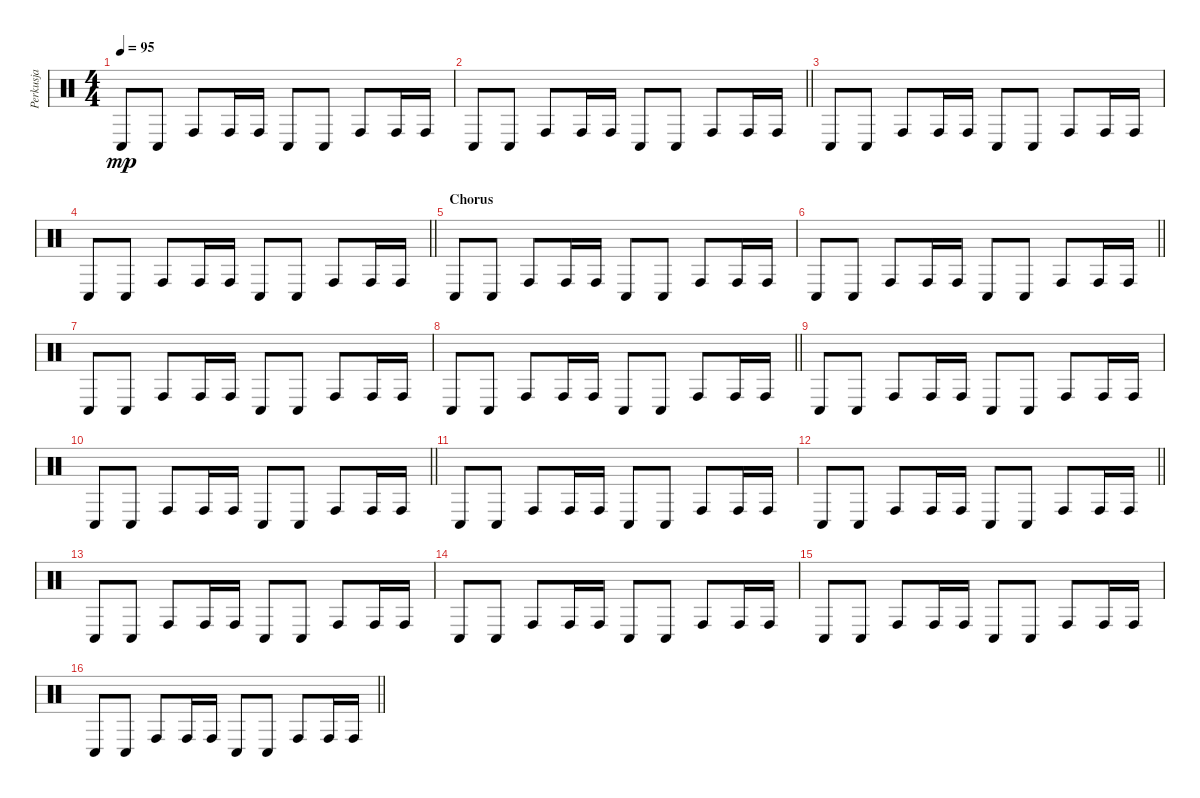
\track ("Perkusja" "Perkusja") {instrument percussion}
\staff {score}
\articulation defaults
\ts (4 4)
\tempo 95
\clef neutral
\ks c "Conga low (hit)".8{dy mp} "Conga low (hit)".8 "Conga high (hit)".8 "Conga high (hit)".16 "Conga high (hit)".16 "Conga low (hit)".8 "Conga low (hit)".8 "Conga high (hit)".8 "Conga high (hit)".16 "Conga high (hit)".16
|
\barLineRight lightlight "Conga low (hit)".8 "Conga low (hit)".8 "Conga high (hit)".8 "Conga high (hit)".16 "Conga high (hit)".16 "Conga low (hit)".8 "Conga low (hit)".8 "Conga high (hit)".8 "Conga high (hit)".16 "Conga high (hit)".16
|
"Conga low (hit)".8 "Conga low (hit)".8 "Conga high (hit)".8 "Conga high (hit)".16 "Conga high (hit)".16 "Conga low (hit)".8 "Conga low (hit)".8 "Conga high (hit)".8 "Conga high (hit)".16 "Conga high (hit)".16 |
\barLineRight lightlight "Conga low (hit)".8 "Conga low (hit)".8 "Conga high (hit)".8 "Conga high (hit)".16 "Conga high (hit)".16 "Conga low (hit)".8 "Conga low (hit)".8 "Conga high (hit)".8 "Conga high (hit)".16 "Conga high (hit)".16
|
\section ("" "Chorus")
"Conga low (hit)".8 "Conga low (hit)".8 "Conga high (hit)".8 "Conga high (hit)".16 "Conga high (hit)".16 "Conga low (hit)".8 "Conga low (hit)".8 "Conga high (hit)".8 "Conga high (hit)".16 "Conga high (hit)".16 |
\barLineRight lightlight "Conga low (hit)".8 "Conga low (hit)".8 "Conga high (hit)".8 "Conga high (hit)".16 "Conga high (hit)".16 "Conga low (hit)".8 "Conga low (hit)".8 "Conga high (hit)".8 "Conga high (hit)".16 "Conga high (hit)".16
|
"Conga low (hit)".8 "Conga low (hit)".8 "Conga high (hit)".8 "Conga high (hit)".16 "Conga high (hit)".16 "Conga low (hit)".8 "Conga low (hit)".8 "Conga high (hit)".8 "Conga high (hit)".16 "Conga high (hit)".16 |
\barLineRight lightlight "Conga low (hit)".8 "Conga low (hit)".8 "Conga high (hit)".8 "Conga high (hit)".16 "Conga high (hit)".16 "Conga low (hit)".8 "Conga low (hit)".8 "Conga high (hit)".8 "Conga high (hit)".16 "Conga high (hit)".16
|
"Conga low (hit)".8 "Conga low (hit)".8 "Conga high (hit)".8 "Conga high (hit)".16 "Conga high (hit)".16 "Conga low (hit)".8 "Conga low (hit)".8 "Conga high (hit)".8 "Conga high (hit)".16 "Conga high (hit)".16 |
\barLineRight lightlight "Conga low (hit)".8 "Conga low (hit)".8 "Conga high (hit)".8 "Conga high (hit)".16 "Conga high (hit)".16 "Conga low (hit)".8 "Conga low (hit)".8 "Conga high (hit)".8 "Conga high (hit)".16 "Conga high (hit)".16
|
"Conga low (hit)".8 "Conga low (hit)".8 "Conga high (hit)".8 "Conga high (hit)".16 "Conga high (hit)".16 "Conga low (hit)".8 "Conga low (hit)".8 "Conga high (hit)".8 "Conga high (hit)".16 "Conga high (hit)".16 |
\barLineRight lightlight "Conga low (hit)".8 "Conga low (hit)".8 "Conga high (hit)".8 "Conga high (hit)".16 "Conga high (hit)".16 "Conga low (hit)".8 "Conga low (hit)".8 "Conga high (hit)".8 "Conga high (hit)".16 "Conga high (hit)".16
|
"Conga low (hit)".8 "Conga low (hit)".8 "Conga high (hit)".8 "Conga high (hit)".16 "Conga high (hit)".16 "Conga low (hit)".8 "Conga low (hit)".8 "Conga high (hit)".8 "Conga high (hit)".16 "Conga high (hit)".16 |
"Conga low (hit)".8 "Conga low (hit)".8 "Conga high (hit)".8 "Conga high (hit)".16 "Conga high (hit)".16 "Conga low (hit)".8 "Conga low (hit)".8 "Conga high (hit)".8 "Conga high (hit)".16 "Conga high (hit)".16 |
"Conga low (hit)".8 "Conga low (hit)".8 "Conga high (hit)".8 "Conga high (hit)".16 "Conga high (hit)".16 "Conga low (hit)".8 "Conga low (hit)".8 "Conga high (hit)".8 "Conga high (hit)".16 "Conga high (hit)".16 |
\barLineRight lightlight "Conga low (hit)".8 "Conga low (hit)".8 "Conga high (hit)".8 "Conga high (hit)".16 "Conga high (hit)".16 "Conga low (hit)".8 "Conga low (hit)".8 "Conga high (hit)".8 "Conga high (hit)".16 "Conga high (hit)".16
